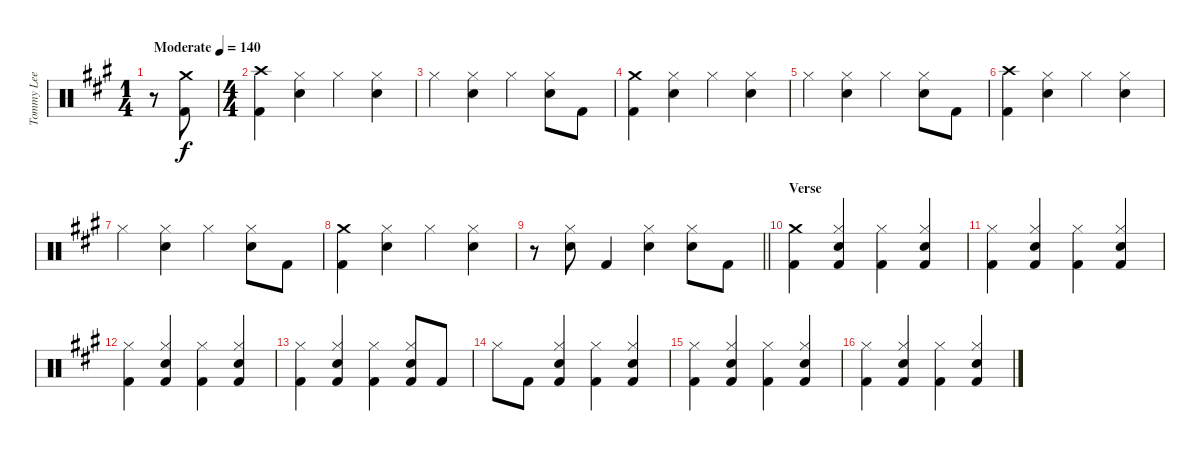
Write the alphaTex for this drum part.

\track ("Tommy Lee - Drums" "Tommy Lee ") {instrument percussion}
\staff {score}
\articulation defaults
\ts (1 4)
\tempo (140 "Moderate")
\clef neutral
\ks a
r.8{dy f} ("Crash medium (hit)" "Kick (hit) 2").8 |
\ts (4 4)
("Crash high (hit)" "Kick (hit) 2").4 ("Hi-Hat (closed)" "Snare (hit) 2").4 "Hi-Hat (closed)".4 ("Hi-Hat (closed)" "Snare (hit) 2").4 |
"Hi-Hat (closed)".4 ("Hi-Hat (closed)" "Snare (hit) 2").4 "Hi-Hat (closed)".4 ("Hi-Hat (closed)" "Snare (hit) 2").8 "Kick (hit) 2".8 |
("Crash medium (hit)" "Kick (hit) 2").4 ("Hi-Hat (closed)" "Snare (hit) 2").4 "Hi-Hat (closed)".4 ("Hi-Hat (closed)" "Snare (hit) 2").4 |
"Hi-Hat (closed)".4 ("Hi-Hat (closed)" "Snare (hit) 2").4 "Hi-Hat (closed)".4 ("Hi-Hat (closed)" "Snare (hit) 2").8 "Kick (hit) 2".8 |
("Crash high (hit)" "Kick (hit) 2").4 ("Hi-Hat (closed)" "Snare (hit) 2").4 "Hi-Hat (closed)".4 ("Hi-Hat (closed)" "Snare (hit) 2").4 |
"Hi-Hat (closed)".4 ("Hi-Hat (closed)" "Snare (hit) 2").4 "Hi-Hat (closed)".4 ("Hi-Hat (closed)" "Snare (hit) 2").8 "Kick (hit) 2".8 |
("Crash medium (hit)" "Kick (hit) 2").4 ("Hi-Hat (closed)" "Snare (hit) 2").4 "Hi-Hat (closed)".4 ("Hi-Hat (closed)" "Snare (hit) 2").4 |
\barLineRight lightlight
r.8 ("Hi-Hat (closed)" "Snare (hit) 2").8 "Kick (hit) 2".4 ("Hi-Hat (closed)" "Snare (hit) 2").4 ("Hi-Hat (closed)" "Snare (hit) 2").8 "Kick (hit) 2".8 |
\section ("" "Verse")
("Crash medium (hit)" "Kick (hit) 2").4 ("Hi-Hat (closed)" "Snare (hit) 2" "Kick (hit) 2").4 ("Hi-Hat (closed)" "Kick (hit) 2").4 ("Hi-Hat (closed)" "Snare (hit) 2" "Kick (hit) 2").4 |
("Hi-Hat (closed)" "Kick (hit) 2").4 ("Hi-Hat (closed)" "Snare (hit) 2" "Kick (hit) 2").4 ("Hi-Hat (closed)" "Kick (hit) 2").4 ("Hi-Hat (closed)" "Snare (hit) 2" "Kick (hit) 2").4 |
("Hi-Hat (closed)" "Kick (hit) 2").4 ("Hi-Hat (closed)" "Snare (hit) 2" "Kick (hit) 2").4 ("Hi-Hat (closed)" "Kick (hit) 2").4 ("Hi-Hat (closed)" "Snare (hit) 2" "Kick (hit) 2").4 |
("Hi-Hat (closed)" "Kick (hit) 2").4 ("Hi-Hat (closed)" "Snare (hit) 2" "Kick (hit) 2").4 ("Hi-Hat (closed)" "Kick (hit) 2").4 ("Hi-Hat (closed)" "Snare (hit) 2" "Kick (hit) 2").8 "Kick (hit) 2".8 |
"Hi-Hat (closed)".8 "Kick (hit) 2".8 ("Hi-Hat (closed)" "Snare (hit) 2" "Kick (hit) 2").4 ("Hi-Hat (closed)" "Kick (hit) 2").4 ("Hi-Hat (closed)" "Snare (hit) 2" "Kick (hit) 2").4 |
("Hi-Hat (closed)" "Kick (hit) 2").4 ("Hi-Hat (closed)" "Snare (hit) 2" "Kick (hit) 2").4 ("Hi-Hat (closed)" "Kick (hit) 2").4 ("Hi-Hat (closed)" "Snare (hit) 2" "Kick (hit) 2").4 |
("Hi-Hat (closed)" "Kick (hit) 2").4 ("Hi-Hat (closed)" "Snare (hit) 2" "Kick (hit) 2").4 ("Hi-Hat (closed)" "Kick (hit) 2").4 ("Hi-Hat (closed)" "Snare (hit) 2" "Kick (hit) 2").4
